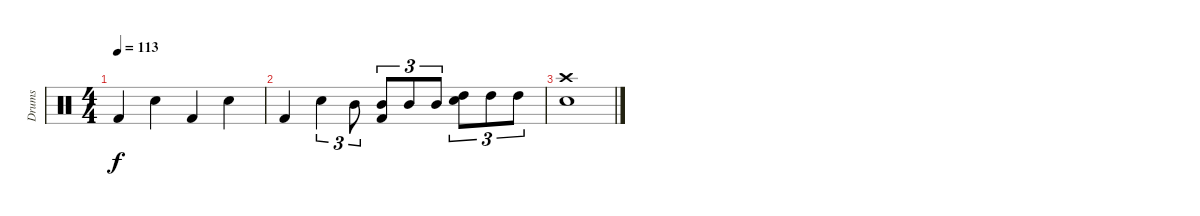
\track ("Drums" "Drums") {instrument percussion}
\staff {score}
\articulation defaults
\ts (4 4)
\tempo 113
\clef neutral
\ks c "Kick (hit) 2".4{dy f} "Electric Snare (hit)".4 "Kick (hit) 2".4 "Electric Snare (hit)".4
|
"Kick (hit) 2".4 "Electric Snare (hit)".4{tu (3 2)} "Mid Tom (hit)".8{tu (3 2)} ("Mid Tom (hit)" "Kick (hit) 2").8{tu (3 2)} "Mid Tom (hit)".8{tu (3 2)} "Mid Tom (hit)".8{tu (3 2)} ("High Tom (hit)" "Electric Snare (hit)").8{tu (3 2)} "High Tom (hit)".8{tu (3 2)} "High Tom (hit)".8{tu (3 2)} |
("Electric Snare (hit)" "Crash high (hit)").1
